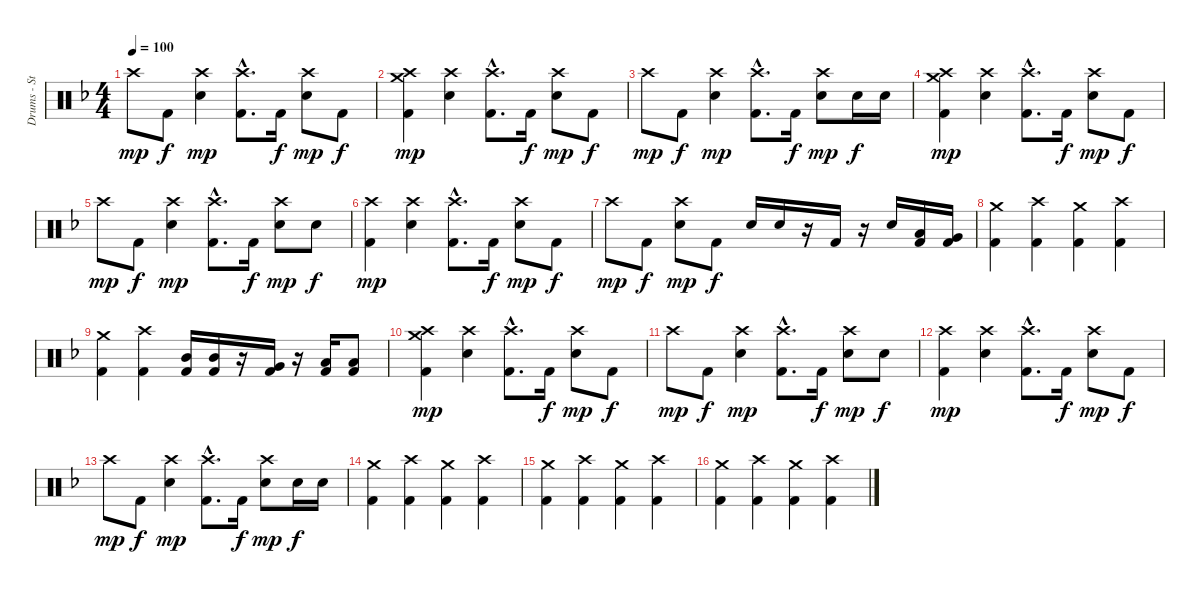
\track ("Drums - Steve Wacholz" "Drums - St") {instrument percussion}
\staff {score}
\articulation defaults
\ts (4 4)
\tempo 100
\clef neutral
\ks f "Crash high (hit)".8{dy mp} "Kick (hit) 2".8{dy f}
("Electric Snare (hit)" "Crash high (hit)").4{dy mp} ("Kick (hit) 2"{hac} "Crash high (hit)"{hac}).8{d} "Kick (hit) 2".16{dy f} ("Electric Snare (hit)" "Crash high (hit)").8{dy mp} "Kick (hit) 2".8{dy f} |
("Kick (hit) 2" "Crash high (hit)" "Crash medium (hit)").4{dy mp} ("Electric Snare (hit)" "Crash high (hit)").4 ("Kick (hit) 2"{hac} "Crash high (hit)"{hac}).8{d} "Kick (hit) 2".16{dy f} ("Electric Snare (hit)" "Crash high (hit)").8{dy mp} "Kick (hit) 2".8{dy f} |
"Crash high (hit)".8{dy mp} "Kick (hit) 2".8{dy f} ("Electric Snare (hit)" "Crash high (hit)").4{dy mp} ("Kick (hit) 2"{hac} "Crash high (hit)"{hac}).8{d} "Kick (hit) 2".16{dy f} ("Electric Snare (hit)" "Crash high (hit)").8{dy mp} "Electric Snare (hit)".16{dy f} "Electric Snare (hit)".16 |
("Kick (hit) 2" "Crash high (hit)" "Crash medium (hit)").4{dy mp} ("Electric Snare (hit)" "Crash high (hit)").4 ("Kick (hit) 2"{hac} "Crash high (hit)"{hac}).8{d} "Kick (hit) 2".16{dy f} ("Electric Snare (hit)" "Crash high (hit)").8{dy mp} "Kick (hit) 2".8{dy f} |
"Crash high (hit)".8{dy mp} "Kick (hit) 2".8{dy f} ("Electric Snare (hit)" "Crash high (hit)").4{dy mp} ("Kick (hit) 2"{hac} "Crash high (hit)"{hac}).8{d} "Kick (hit) 2".16{dy f} ("Electric Snare (hit)" "Crash high (hit)").8{dy mp} "Electric Snare (hit)".8{dy f} |
("Kick (hit) 2" "Crash high (hit)").4{dy mp} ("Electric Snare (hit)" "Crash high (hit)").4 ("Kick (hit) 2"{hac} "Crash high (hit)"{hac}).8{d} "Kick (hit) 2".16{dy f} ("Electric Snare (hit)" "Crash high (hit)").8{dy mp} "Kick (hit) 2".8{dy f} |
"Crash high (hit)".8{dy mp} "Kick (hit) 2".8{dy f} ("Electric Snare (hit)" "Crash high (hit)").8{dy mp} "Kick (hit) 2".8{dy f} "Electric Snare (hit)".16 "Electric Snare (hit)".16 r.16 "Kick (hit) 2".16 r.16 "Electric Snare (hit)".16 ("Kick (hit) 2" "Low Tom (hit)").16 ("Kick (hit) 2" "Very Low Tom (hit)").16 |
("Kick (hit) 2" "Crash medium (hit)").4 ("Kick (hit) 2" "Crash high (hit)").4 ("Kick (hit) 2" "Crash medium (hit)").4 ("Kick (hit) 2" "Crash high (hit)").4 |
("Kick (hit) 2" "Crash medium (hit)").4 ("Kick (hit) 2" "Crash high (hit)").4 ("Kick (hit) 2" "Mid Tom (hit)").16 ("Kick (hit) 2" "Mid Tom (hit)").16 r.16 ("Kick (hit) 2" "Very Low Tom (hit)").16 r.16 ("Kick (hit) 2" "Low Tom (hit)").16 ("Kick (hit) 2" "Low Tom (hit)").8 |
("Kick (hit) 2" "Crash high (hit)" "Crash medium (hit)").4{dy mp} ("Electric Snare (hit)" "Crash high (hit)").4 ("Kick (hit) 2"{hac} "Crash high (hit)"{hac}).8{d} "Kick (hit) 2".16{dy f} ("Electric Snare (hit)" "Crash high (hit)").8{dy mp} "Kick (hit) 2".8{dy f} |
"Crash high (hit)".8{dy mp} "Kick (hit) 2".8{dy f} ("Electric Snare (hit)" "Crash high (hit)").4{dy mp} ("Kick (hit) 2"{hac} "Crash high (hit)"{hac}).8{d} "Kick (hit) 2".16{dy f} ("Electric Snare (hit)" "Crash high (hit)").8{dy mp} "Electric Snare (hit)".8{dy f} |
("Kick (hit) 2" "Crash high (hit)").4{dy mp} ("Electric Snare (hit)" "Crash high (hit)").4 ("Kick (hit) 2"{hac} "Crash high (hit)"{hac}).8{d} "Kick (hit) 2".16{dy f} ("Electric Snare (hit)" "Crash high (hit)").8{dy mp} "Kick (hit) 2".8{dy f} |
"Crash high (hit)".8{dy mp} "Kick (hit) 2".8{dy f} ("Electric Snare (hit)" "Crash high (hit)").4{dy mp} ("Kick (hit) 2"{hac} "Crash high (hit)"{hac}).8{d} "Kick (hit) 2".16{dy f} ("Electric Snare (hit)" "Crash high (hit)").8{dy mp} "Electric Snare (hit)".16{dy f} "Electric Snare (hit)".16 |
("Kick (hit) 2" "Crash medium (hit)").4 ("Kick (hit) 2" "Crash high (hit)").4 ("Kick (hit) 2" "Crash medium (hit)").4 ("Kick (hit) 2" "Crash high (hit)").4 |
("Kick (hit) 2" "Crash medium (hit)").4 ("Kick (hit) 2" "Crash high (hit)").4 ("Kick (hit) 2" "Crash medium (hit)").4 ("Kick (hit) 2" "Crash high (hit)").4 |
("Kick (hit) 2" "Crash medium (hit)").4 ("Kick (hit) 2" "Crash high (hit)").4 ("Kick (hit) 2" "Crash medium (hit)").4 ("Kick (hit) 2" "Crash high (hit)").4
